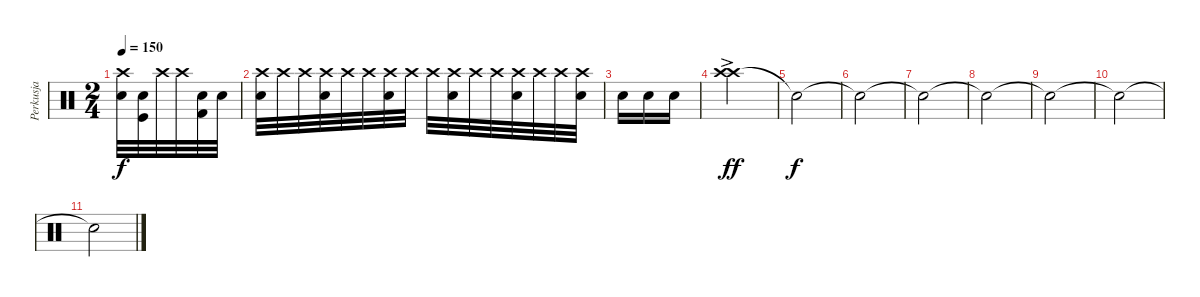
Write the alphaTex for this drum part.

\track ("Perkusja" "Perkusja") {instrument percussion}
\staff {score}
\articulation defaults
\ts (2 4)
\tempo 150
\clef neutral
\ks c
("Crash high (hit)" "Electric Snare (hit)").32{dy f} ("Metronome (bell)" "Kick (hit)").32 "Crash high (hit)".32 "Crash high (hit)".32 ("Electric Snare (hit)" "Kick (hit) 2").32 "Electric Snare (hit)".32 |
("Crash high (hit)" "Electric Snare (hit)").32 "Crash high (hit)".32 "Crash high (hit)".32 ("Crash high (hit)" "Electric Snare (hit)").32 "Crash high (hit)".32 "Crash high (hit)".32 ("Crash high (hit)" "Electric Snare (hit)").32 "Crash high (hit)".32 "Crash high (hit)".32 ("Crash high (hit)" "Electric Snare (hit)").32 "Crash high (hit)".32 "Crash high (hit)".32 ("Crash high (hit)" "Electric Snare (hit)").32 "Crash high (hit)".32 "Crash high (hit)".32 ("Crash high (hit)" "Electric Snare (hit)").32 |
"Electric Snare (hit)".16 "Electric Snare (hit)".16 "Electric Snare (hit)".16 |
("Crash high (hit)"{ac} "Crash high (hit)").2{dy ff} |
"Snare (hit)"{t}.2{dy f} |
"Snare (hit)"{t}.2 |
"Snare (hit)"{t}.2 |
"Snare (hit)"{t}.2 |
"Snare (hit)"{t}.2 |
"Snare (hit)"{t}.2 |
"Snare (hit)"{t}.2
